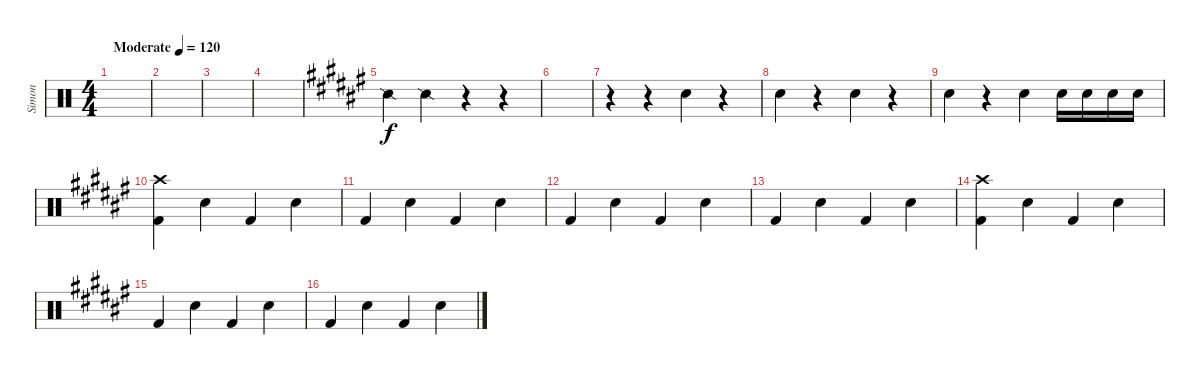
\track ("Simon" "Simon") {instrument percussion}
\staff {score}
\articulation defaults
\ts (4 4)
\tempo (120 "Moderate")
\clef neutral
\ks c
|
|
|
|
\ks f# "Snare (side stick) 2".4 "Snare (side stick) 2".4
r.4 r.4 |
|
r.4 r.4 "Snare (hit) 2".4 r.4 |
"Snare (hit) 2".4 r.4 "Snare (hit) 2".4 r.4 |
"Snare (hit) 2".4 r.4 "Snare (hit) 2".4 "Snare (hit) 2".16 "Snare (hit) 2".16 "Snare (hit) 2".16 "Snare (hit) 2".16 |
("Kick (hit) 2" "Crash high (hit)").4 "Snare (hit) 2".4 "Kick (hit) 2".4 "Snare (hit) 2".4 |
"Kick (hit) 2".4 "Snare (hit) 2".4 "Kick (hit) 2".4 "Snare (hit) 2".4 |
"Kick (hit) 2".4 "Snare (hit) 2".4 "Kick (hit) 2".4 "Snare (hit) 2".4 |
"Kick (hit) 2".4 "Snare (hit) 2".4 "Kick (hit) 2".4 "Snare (hit) 2".4 |
("Kick (hit) 2" "Crash high (hit)").4 "Snare (hit) 2".4 "Kick (hit) 2".4 "Snare (hit) 2".4 |
"Kick (hit) 2".4 "Snare (hit) 2".4 "Kick (hit) 2".4 "Snare (hit) 2".4 |
"Kick (hit) 2".4 "Snare (hit) 2".4 "Kick (hit) 2".4 "Snare (hit) 2".4
